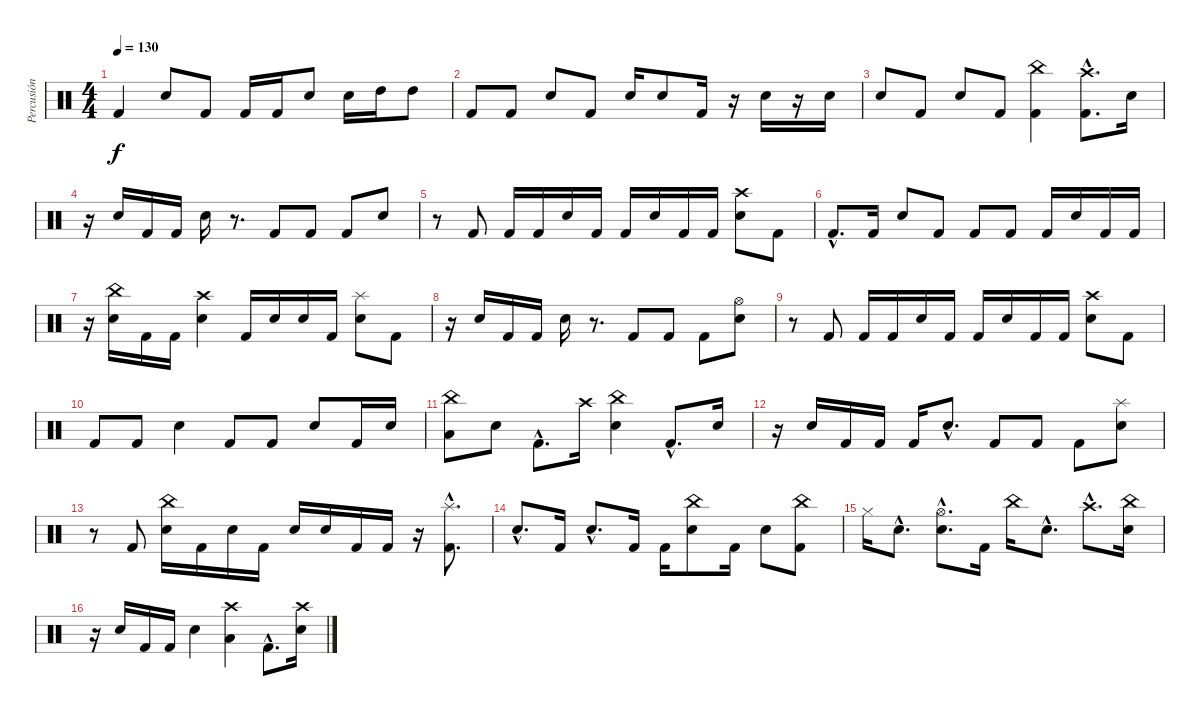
\track ("Percusión" "Percusión") {instrument percussion}
\staff {score}
\articulation defaults
\ts (4 4)
\tempo 130
\clef neutral
\ks c "Kick (hit) 2".4{dy f} "Electric Snare (hit)".8 "Kick (hit) 2".8 "Kick (hit) 2".16 "Kick (hit) 2".16 "Electric Snare (hit)".8 "Electric Snare (hit)".16 "High Tom (hit)".16 "High Tom (hit)".8
|
"Kick (hit) 2".8 "Kick (hit) 2".8 "Electric Snare (hit)".8 "Kick (hit) 2".8 "Electric Snare (hit)".16 "Electric Snare (hit)".8 "Kick (hit) 2".16 r.16 "Electric Snare (hit)".16 r.16 "Electric Snare (hit)".16 |
"Electric Snare (hit)".8 "Kick (hit) 2".8 "Electric Snare (hit)".8 "Kick (hit) 2".8 ("China (hit)" "Kick (hit) 2").4 ("Crash high (hit)"{hac} "Kick (hit) 2"{hac}).8{d} "Electric Snare (hit)".16 |
r.16 "Electric Snare (hit)".16 "Kick (hit) 2".16 "Kick (hit) 2".16 "Electric Snare (hit)".16 r.8{d} "Kick (hit) 2".8 "Kick (hit) 2".8 "Kick (hit) 2".8 "Electric Snare (hit)".8 |
r.8 "Kick (hit) 2".8 "Kick (hit) 2".16 "Kick (hit) 2".16 "Electric Snare (hit)".16 "Kick (hit) 2".16 "Kick (hit) 2".16 "Electric Snare (hit)".16 "Kick (hit) 2".16 "Kick (hit) 2".16 ("Crash high (hit)" "Electric Snare (hit)").8 "Kick (hit) 2".8 |
"Kick (hit) 2"{hac}.8{d} "Kick (hit) 2".16 "Electric Snare (hit)".8 "Kick (hit) 2".8 "Kick (hit) 2".8 "Kick (hit) 2".8 "Kick (hit) 2".16 "Electric Snare (hit)".16 "Kick (hit) 2".16 "Kick (hit) 2".16 |
r.16 ("China (hit)" "Electric Snare (hit)").16 "Kick (hit) 2".16 "Kick (hit) 2".16 ("Crash high (hit)" "Electric Snare (hit)").4 "Kick (hit) 2".16 "Electric Snare (hit)".16 "Electric Snare (hit)".16 "Kick (hit) 2".16 ("Splash (hit)" "Electric Snare (hit)").8 "Kick (hit) 2".8 |
r.16 "Electric Snare (hit)".16 "Kick (hit) 2".16 "Kick (hit) 2".16 "Electric Snare (hit)".16 r.8{d} "Kick (hit) 2".8 "Kick (hit) 2".8 "Kick (hit) 2".8 ("Hi-Hat (open)" "Electric Snare (hit)").8 |
r.8 "Kick (hit) 2".8 "Kick (hit) 2".16 "Kick (hit) 2".16 "Electric Snare (hit)".16 "Kick (hit) 2".16 "Kick (hit) 2".16 "Electric Snare (hit)".16 "Kick (hit) 2".16 "Kick (hit) 2".16 ("Crash high (hit)" "Electric Snare (hit)").8 "Kick (hit) 2".8 |
"Kick (hit) 2".8 "Kick (hit) 2".8 "Electric Snare (hit)".4 "Kick (hit) 2".8 "Kick (hit) 2".8 "Electric Snare (hit)".8 "Kick (hit) 2".16 "Electric Snare (hit)".16 |
("China (hit)" "Low Floor Tom (hit)").8 "Electric Snare (hit)".8 "Kick (hit) 2"{hac}.8{d} "Crash high (hit)".16 ("China (hit)" "Electric Snare (hit)").4 "Kick (hit) 2"{hac}.8{d} "Electric Snare (hit)".16 |
r.16 "Electric Snare (hit)".16 "Kick (hit) 2".16 "Kick (hit) 2".16 "Kick (hit) 2".16 "Electric Snare (hit)"{hac}.8{d} "Kick (hit) 2".8 "Kick (hit) 2".8 "Kick (hit) 2".8 ("Splash (hit)" "Electric Snare (hit)").8 |
r.8 "Kick (hit) 2".8 ("China (hit)" "Electric Snare (hit)").16 "Kick (hit) 2".16 "Electric Snare (hit)".16 "Kick (hit) 2".16 "Electric Snare (hit)".16 "Electric Snare (hit)".16 "Kick (hit) 2".16 "Kick (hit) 2".16 r.16 ("Splash (hit)"{hac} "Kick (hit) 2"{hac}).8{d} |
"Electric Snare (hit)"{hac}.8{d} "Kick (hit) 2".16 "Electric Snare (hit)"{hac}.8{d} "Kick (hit) 2".16 "Kick (hit) 2".16 ("China (hit)" "Electric Snare (hit)").8 "Kick (hit) 2".16 "Electric Snare (hit)".8 ("China (hit)" "Kick (hit) 2").8 |
"Hi-Hat (closed)".16 "Electric Snare (hit)"{hac}.8{d} ("Hi-Hat (open)"{hac} "Electric Snare (hit)"{hac}).8{d} "Kick (hit) 2".16 "China (hit)".16 "Electric Snare (hit)"{hac}.8{d} "Crash high (hit)"{hac}.8{d} ("China (hit)" "Electric Snare (hit)").16 |
r.16 "Electric Snare (hit)".16 "Kick (hit) 2".16 "Kick (hit) 2".16 "Electric Snare (hit)".4 ("Crash high (hit)" "Low Floor Tom (hit)").4 "Kick (hit) 2"{hac}.8{d} ("Crash high (hit)" "Electric Snare (hit)").16
